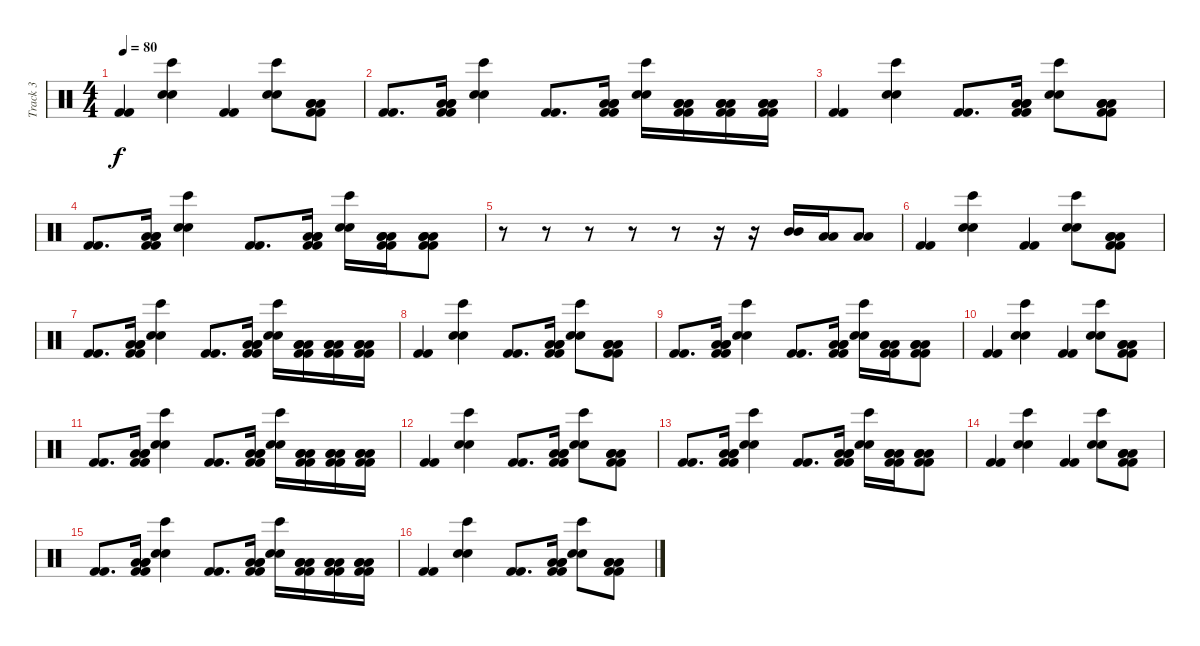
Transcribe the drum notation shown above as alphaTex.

\track ("Track 3" "Track 3") {instrument percussion}
\staff {score}
\articulation defaults
\ts (4 4)
\tempo 80
\clef neutral
\ks c
("Kick (hit) 2" "Kick (hit) 2").4{dy f} ("Hand Clap (hit)" "Hand Clap (hit)" "Bongo High (hit)").4 ("Kick (hit) 2" "Kick (hit) 2").4 ("Hand Clap (hit)" "Hand Clap (hit)" "Bongo High (hit)").8 ("Kick (hit) 2" "Kick (hit) 2" "Low Floor Tom (hit)" "Low Floor Tom (hit)" "Low Floor Tom (hit)").8 |
("Kick (hit) 2" "Kick (hit) 2").8{d} ("Kick (hit) 2" "Kick (hit) 2" "Low Floor Tom (hit)" "Low Floor Tom (hit)" "Low Floor Tom (hit)").16 ("Hand Clap (hit)" "Hand Clap (hit)" "Bongo High (hit)").4 ("Kick (hit) 2" "Kick (hit) 2").8{d} ("Kick (hit) 2" "Kick (hit) 2" "Low Floor Tom (hit)" "Low Floor Tom (hit)" "Low Floor Tom (hit)").16 ("Hand Clap (hit)" "Hand Clap (hit)" "Bongo High (hit)").16 ("Kick (hit) 2" "Kick (hit) 2" "Low Floor Tom (hit)" "Low Floor Tom (hit)" "Low Floor Tom (hit)").16 ("Kick (hit) 2" "Kick (hit) 2" "Low Floor Tom (hit)" "Low Floor Tom (hit)" "Low Floor Tom (hit)").16 ("Kick (hit) 2" "Kick (hit) 2" "Low Floor Tom (hit)" "Low Floor Tom (hit)" "Low Floor Tom (hit)").16 |
("Kick (hit) 2" "Kick (hit) 2").4 ("Hand Clap (hit)" "Hand Clap (hit)" "Bongo High (hit)").4 ("Kick (hit) 2" "Kick (hit) 2").8{d} ("Kick (hit) 2" "Kick (hit) 2" "Low Floor Tom (hit)" "Low Floor Tom (hit)" "Low Floor Tom (hit)").16 ("Hand Clap (hit)" "Hand Clap (hit)" "Bongo High (hit)").8 ("Kick (hit) 2" "Kick (hit) 2" "Low Floor Tom (hit)" "Low Floor Tom (hit)" "Low Floor Tom (hit)").8 |
("Kick (hit) 2" "Kick (hit) 2").8{d} ("Kick (hit) 2" "Kick (hit) 2" "Low Floor Tom (hit)" "Low Floor Tom (hit)" "Low Floor Tom (hit)").16 ("Hand Clap (hit)" "Hand Clap (hit)" "Bongo High (hit)").4 ("Kick (hit) 2" "Kick (hit) 2").8{d} ("Kick (hit) 2" "Kick (hit) 2" "Low Floor Tom (hit)" "Low Floor Tom (hit)" "Low Floor Tom (hit)").16 ("Hand Clap (hit)" "Hand Clap (hit)" "Bongo High (hit)").16 ("Kick (hit) 2" "Kick (hit) 2" "Low Floor Tom (hit)" "Low Floor Tom (hit)" "Low Floor Tom (hit)").16 ("Kick (hit) 2" "Kick (hit) 2" "Low Floor Tom (hit)" "Low Floor Tom (hit)" "Low Floor Tom (hit)").8 |
r.8 r.8 r.8 r.8 r.8 r.16 r.16 ("Mid Tom (hit)" "Mid Tom (hit)").16 ("Low Tom (hit)" "Low Tom (hit)").16 ("Low Tom (hit)" "Low Tom (hit)").8 |
("Kick (hit) 2" "Kick (hit) 2").4 ("Hand Clap (hit)" "Hand Clap (hit)" "Bongo High (hit)").4 ("Kick (hit) 2" "Kick (hit) 2").4 ("Hand Clap (hit)" "Hand Clap (hit)" "Bongo High (hit)").8 ("Kick (hit) 2" "Kick (hit) 2" "Low Floor Tom (hit)" "Low Floor Tom (hit)" "Low Floor Tom (hit)").8 |
("Kick (hit) 2" "Kick (hit) 2").8{d} ("Kick (hit) 2" "Kick (hit) 2" "Low Floor Tom (hit)" "Low Floor Tom (hit)" "Low Floor Tom (hit)").16 ("Hand Clap (hit)" "Hand Clap (hit)" "Bongo High (hit)").4 ("Kick (hit) 2" "Kick (hit) 2").8{d} ("Kick (hit) 2" "Kick (hit) 2" "Low Floor Tom (hit)" "Low Floor Tom (hit)" "Low Floor Tom (hit)").16 ("Hand Clap (hit)" "Hand Clap (hit)" "Bongo High (hit)").16 ("Kick (hit) 2" "Kick (hit) 2" "Low Floor Tom (hit)" "Low Floor Tom (hit)" "Low Floor Tom (hit)").16 ("Kick (hit) 2" "Kick (hit) 2" "Low Floor Tom (hit)" "Low Floor Tom (hit)" "Low Floor Tom (hit)").16 ("Kick (hit) 2" "Kick (hit) 2" "Low Floor Tom (hit)" "Low Floor Tom (hit)" "Low Floor Tom (hit)").16 |
("Kick (hit) 2" "Kick (hit) 2").4 ("Hand Clap (hit)" "Hand Clap (hit)" "Bongo High (hit)").4 ("Kick (hit) 2" "Kick (hit) 2").8{d} ("Kick (hit) 2" "Kick (hit) 2" "Low Floor Tom (hit)" "Low Floor Tom (hit)" "Low Floor Tom (hit)").16 ("Hand Clap (hit)" "Hand Clap (hit)" "Bongo High (hit)").8 ("Kick (hit) 2" "Kick (hit) 2" "Low Floor Tom (hit)" "Low Floor Tom (hit)" "Low Floor Tom (hit)").8 |
("Kick (hit) 2" "Kick (hit) 2").8{d} ("Kick (hit) 2" "Kick (hit) 2" "Low Floor Tom (hit)" "Low Floor Tom (hit)" "Low Floor Tom (hit)").16 ("Hand Clap (hit)" "Hand Clap (hit)" "Bongo High (hit)").4 ("Kick (hit) 2" "Kick (hit) 2").8{d} ("Kick (hit) 2" "Kick (hit) 2" "Low Floor Tom (hit)" "Low Floor Tom (hit)" "Low Floor Tom (hit)").16 ("Hand Clap (hit)" "Hand Clap (hit)" "Bongo High (hit)").16 ("Kick (hit) 2" "Kick (hit) 2" "Low Floor Tom (hit)" "Low Floor Tom (hit)" "Low Floor Tom (hit)").16 ("Kick (hit) 2" "Kick (hit) 2" "Low Floor Tom (hit)" "Low Floor Tom (hit)" "Low Floor Tom (hit)").8 |
("Kick (hit) 2" "Kick (hit) 2").4 ("Hand Clap (hit)" "Hand Clap (hit)" "Bongo High (hit)").4 ("Kick (hit) 2" "Kick (hit) 2").4 ("Hand Clap (hit)" "Hand Clap (hit)" "Bongo High (hit)").8 ("Kick (hit) 2" "Kick (hit) 2" "Low Floor Tom (hit)" "Low Floor Tom (hit)" "Low Floor Tom (hit)").8 |
("Kick (hit) 2" "Kick (hit) 2").8{d} ("Kick (hit) 2" "Kick (hit) 2" "Low Floor Tom (hit)" "Low Floor Tom (hit)" "Low Floor Tom (hit)").16 ("Hand Clap (hit)" "Hand Clap (hit)" "Bongo High (hit)").4 ("Kick (hit) 2" "Kick (hit) 2").8{d} ("Kick (hit) 2" "Kick (hit) 2" "Low Floor Tom (hit)" "Low Floor Tom (hit)" "Low Floor Tom (hit)").16 ("Hand Clap (hit)" "Hand Clap (hit)" "Bongo High (hit)").16 ("Kick (hit) 2" "Kick (hit) 2" "Low Floor Tom (hit)" "Low Floor Tom (hit)" "Low Floor Tom (hit)").16 ("Kick (hit) 2" "Kick (hit) 2" "Low Floor Tom (hit)" "Low Floor Tom (hit)" "Low Floor Tom (hit)").16 ("Kick (hit) 2" "Kick (hit) 2" "Low Floor Tom (hit)" "Low Floor Tom (hit)" "Low Floor Tom (hit)").16 |
("Kick (hit) 2" "Kick (hit) 2").4 ("Hand Clap (hit)" "Hand Clap (hit)" "Bongo High (hit)").4 ("Kick (hit) 2" "Kick (hit) 2").8{d} ("Kick (hit) 2" "Kick (hit) 2" "Low Floor Tom (hit)" "Low Floor Tom (hit)" "Low Floor Tom (hit)").16 ("Hand Clap (hit)" "Hand Clap (hit)" "Bongo High (hit)").8 ("Kick (hit) 2" "Kick (hit) 2" "Low Floor Tom (hit)" "Low Floor Tom (hit)" "Low Floor Tom (hit)").8 |
("Kick (hit) 2" "Kick (hit) 2").8{d} ("Kick (hit) 2" "Kick (hit) 2" "Low Floor Tom (hit)" "Low Floor Tom (hit)" "Low Floor Tom (hit)").16 ("Hand Clap (hit)" "Hand Clap (hit)" "Bongo High (hit)").4 ("Kick (hit) 2" "Kick (hit) 2").8{d} ("Kick (hit) 2" "Kick (hit) 2" "Low Floor Tom (hit)" "Low Floor Tom (hit)" "Low Floor Tom (hit)").16 ("Hand Clap (hit)" "Hand Clap (hit)" "Bongo High (hit)").16 ("Kick (hit) 2" "Kick (hit) 2" "Low Floor Tom (hit)" "Low Floor Tom (hit)" "Low Floor Tom (hit)").16 ("Kick (hit) 2" "Kick (hit) 2" "Low Floor Tom (hit)" "Low Floor Tom (hit)" "Low Floor Tom (hit)").8 |
("Kick (hit) 2" "Kick (hit) 2").4 ("Hand Clap (hit)" "Hand Clap (hit)" "Bongo High (hit)").4 ("Kick (hit) 2" "Kick (hit) 2").4 ("Hand Clap (hit)" "Hand Clap (hit)" "Bongo High (hit)").8 ("Kick (hit) 2" "Kick (hit) 2" "Low Floor Tom (hit)" "Low Floor Tom (hit)" "Low Floor Tom (hit)").8 |
("Kick (hit) 2" "Kick (hit) 2").8{d} ("Kick (hit) 2" "Kick (hit) 2" "Low Floor Tom (hit)" "Low Floor Tom (hit)" "Low Floor Tom (hit)").16 ("Hand Clap (hit)" "Hand Clap (hit)" "Bongo High (hit)").4 ("Kick (hit) 2" "Kick (hit) 2").8{d} ("Kick (hit) 2" "Kick (hit) 2" "Low Floor Tom (hit)" "Low Floor Tom (hit)" "Low Floor Tom (hit)").16 ("Hand Clap (hit)" "Hand Clap (hit)" "Bongo High (hit)").16 ("Kick (hit) 2" "Kick (hit) 2" "Low Floor Tom (hit)" "Low Floor Tom (hit)" "Low Floor Tom (hit)").16 ("Kick (hit) 2" "Kick (hit) 2" "Low Floor Tom (hit)" "Low Floor Tom (hit)" "Low Floor Tom (hit)").16 ("Kick (hit) 2" "Kick (hit) 2" "Low Floor Tom (hit)" "Low Floor Tom (hit)" "Low Floor Tom (hit)").16 |
("Kick (hit) 2" "Kick (hit) 2").4 ("Hand Clap (hit)" "Hand Clap (hit)" "Bongo High (hit)").4 ("Kick (hit) 2" "Kick (hit) 2").8{d} ("Kick (hit) 2" "Kick (hit) 2" "Low Floor Tom (hit)" "Low Floor Tom (hit)" "Low Floor Tom (hit)").16 ("Hand Clap (hit)" "Hand Clap (hit)" "Bongo High (hit)").8 ("Kick (hit) 2" "Kick (hit) 2" "Low Floor Tom (hit)" "Low Floor Tom (hit)" "Low Floor Tom (hit)").8
